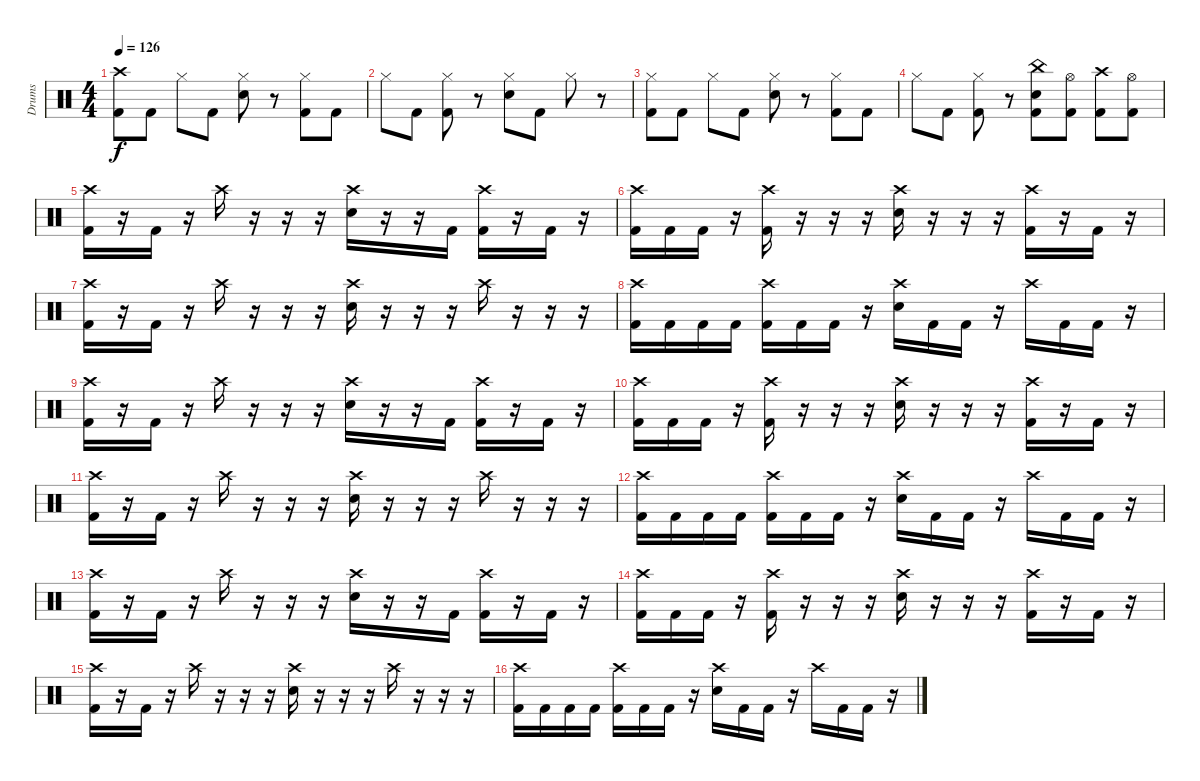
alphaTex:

\track ("Drums" "Drums") {instrument percussion}
\staff {score}
\articulation defaults
\ts (4 4)
\tempo 126
\clef neutral
\ks c
("Crash high (hit)" "Kick (hit) 2").8{dy f} "Kick (hit) 2".8 "Hi-Hat (closed)".8 "Kick (hit) 2".8 ("Hi-Hat (closed)" "Electric Snare (hit)").8 r.8 ("Hi-Hat (closed)" "Kick (hit) 2").8 "Kick (hit) 2".8 |
"Hi-Hat (closed)".8 "Kick (hit) 2".8 ("Hi-Hat (closed)" "Kick (hit) 2").8 r.8 ("Hi-Hat (closed)" "Electric Snare (hit)").8 "Kick (hit) 2".8 "Hi-Hat (closed)".8 r.8 |
("Hi-Hat (closed)" "Kick (hit) 2").8 "Kick (hit) 2".8 "Hi-Hat (closed)".8 "Kick (hit) 2".8 ("Hi-Hat (closed)" "Electric Snare (hit)").8 r.8 ("Hi-Hat (closed)" "Kick (hit) 2").8 "Kick (hit) 2".8 |
"Hi-Hat (closed)".8 "Kick (hit) 2".8 ("Hi-Hat (closed)" "Kick (hit) 2").8 r.8 ("China (hit)" "Electric Snare (hit)" "Kick (hit) 2").8 ("Hi-Hat (open)" "Kick (hit) 2").8 ("Crash high (hit)" "Kick (hit) 2").8 ("Hi-Hat (open)" "Kick (hit) 2").8 |
("Crash high (hit)" "Kick (hit) 2").16 r.16 "Kick (hit) 2".16 r.16 "Crash high (hit)".16 r.16 r.16 r.16 ("Crash high (hit)" "Electric Snare (hit)").16 r.16 r.16 "Kick (hit) 2".16 ("Crash high (hit)" "Kick (hit) 2").16 r.16 "Kick (hit) 2".16 r.16 |
("Crash high (hit)" "Kick (hit) 2").16 "Kick (hit) 2".16 "Kick (hit) 2".16 r.16 ("Crash high (hit)" "Kick (hit) 2").16 r.16 r.16 r.16 ("Crash high (hit)" "Electric Snare (hit)").16 r.16 r.16 r.16 ("Crash high (hit)" "Kick (hit) 2").16 r.16 "Kick (hit) 2".16 r.16 |
("Crash high (hit)" "Kick (hit) 2").16 r.16 "Kick (hit) 2".16 r.16 "Crash high (hit)".16 r.16 r.16 r.16 ("Crash high (hit)" "Electric Snare (hit)").16 r.16 r.16 r.16 "Crash high (hit)".16 r.16 r.16 r.16 |
("Crash high (hit)" "Kick (hit) 2").16 "Kick (hit) 2".16 "Kick (hit) 2".16 "Kick (hit) 2".16 ("Crash high (hit)" "Kick (hit) 2").16 "Kick (hit) 2".16 "Kick (hit) 2".16 r.16 ("Crash high (hit)" "Electric Snare (hit)").16 "Kick (hit) 2".16 "Kick (hit) 2".16 r.16 "Crash high (hit)".16 "Kick (hit) 2".16 "Kick (hit) 2".16 r.16 |
("Crash high (hit)" "Kick (hit) 2").16 r.16 "Kick (hit) 2".16 r.16 "Crash high (hit)".16 r.16 r.16 r.16 ("Crash high (hit)" "Electric Snare (hit)").16 r.16 r.16 "Kick (hit) 2".16 ("Crash high (hit)" "Kick (hit) 2").16 r.16 "Kick (hit) 2".16 r.16 |
("Crash high (hit)" "Kick (hit) 2").16 "Kick (hit) 2".16 "Kick (hit) 2".16 r.16 ("Crash high (hit)" "Kick (hit) 2").16 r.16 r.16 r.16 ("Crash high (hit)" "Electric Snare (hit)").16 r.16 r.16 r.16 ("Crash high (hit)" "Kick (hit) 2").16 r.16 "Kick (hit) 2".16 r.16 |
("Crash high (hit)" "Kick (hit) 2").16 r.16 "Kick (hit) 2".16 r.16 "Crash high (hit)".16 r.16 r.16 r.16 ("Crash high (hit)" "Electric Snare (hit)").16 r.16 r.16 r.16 "Crash high (hit)".16 r.16 r.16 r.16 |
("Crash high (hit)" "Kick (hit) 2").16 "Kick (hit) 2".16 "Kick (hit) 2".16 "Kick (hit) 2".16 ("Crash high (hit)" "Kick (hit) 2").16 "Kick (hit) 2".16 "Kick (hit) 2".16 r.16 ("Crash high (hit)" "Electric Snare (hit)").16 "Kick (hit) 2".16 "Kick (hit) 2".16 r.16 "Crash high (hit)".16 "Kick (hit) 2".16 "Kick (hit) 2".16 r.16 |
("Crash high (hit)" "Kick (hit) 2").16 r.16 "Kick (hit) 2".16 r.16 "Crash high (hit)".16 r.16 r.16 r.16 ("Crash high (hit)" "Electric Snare (hit)").16 r.16 r.16 "Kick (hit) 2".16 ("Crash high (hit)" "Kick (hit) 2").16 r.16 "Kick (hit) 2".16 r.16 |
("Crash high (hit)" "Kick (hit) 2").16 "Kick (hit) 2".16 "Kick (hit) 2".16 r.16 ("Crash high (hit)" "Kick (hit) 2").16 r.16 r.16 r.16 ("Crash high (hit)" "Electric Snare (hit)").16 r.16 r.16 r.16 ("Crash high (hit)" "Kick (hit) 2").16 r.16 "Kick (hit) 2".16 r.16 |
("Crash high (hit)" "Kick (hit) 2").16 r.16 "Kick (hit) 2".16 r.16 "Crash high (hit)".16 r.16 r.16 r.16 ("Crash high (hit)" "Electric Snare (hit)").16 r.16 r.16 r.16 "Crash high (hit)".16 r.16 r.16 r.16 |
("Crash high (hit)" "Kick (hit) 2").16 "Kick (hit) 2".16 "Kick (hit) 2".16 "Kick (hit) 2".16 ("Crash high (hit)" "Kick (hit) 2").16 "Kick (hit) 2".16 "Kick (hit) 2".16 r.16 ("Crash high (hit)" "Electric Snare (hit)").16 "Kick (hit) 2".16 "Kick (hit) 2".16 r.16 "Crash high (hit)".16 "Kick (hit) 2".16 "Kick (hit) 2".16 r.16
